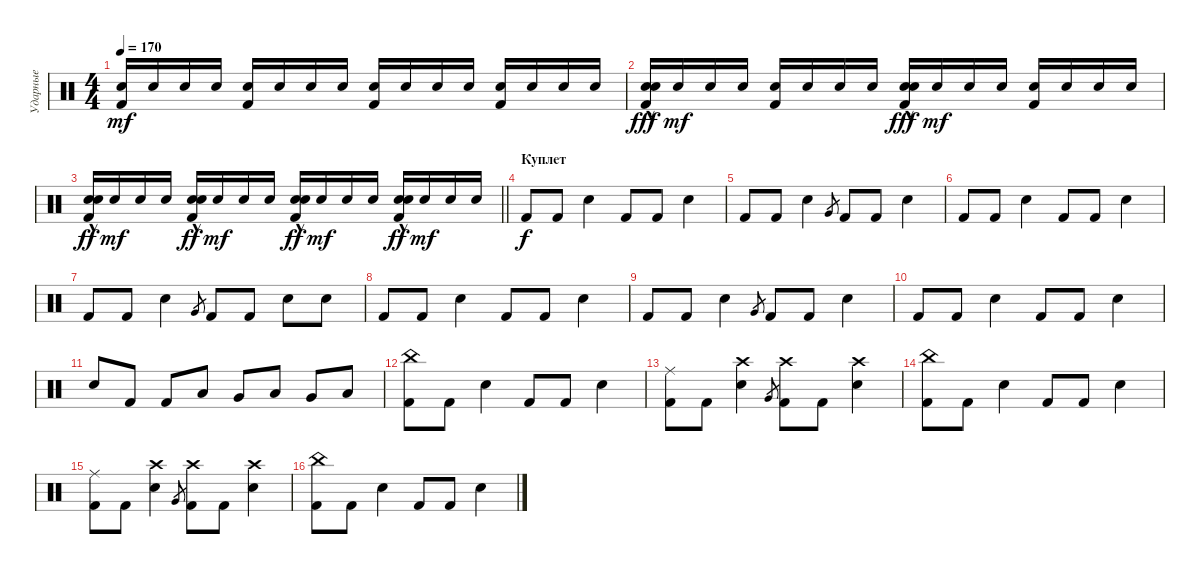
\track ("Ударные" "Ударные") {instrument percussion}
\staff {score}
\articulation defaults
\ts (4 4)
\tempo 170
\clef neutral
\ks c
("Kick (hit) 2" "Electric Snare (hit)").16{dy mf} "Electric Snare (hit)".16 "Electric Snare (hit)".16 "Electric Snare (hit)".16 ("Kick (hit) 2" "Electric Snare (hit)").16 "Electric Snare (hit)".16 "Electric Snare (hit)".16 "Electric Snare (hit)".16 ("Kick (hit) 2" "Electric Snare (hit)").16 "Electric Snare (hit)".16 "Electric Snare (hit)".16 "Electric Snare (hit)".16 ("Kick (hit) 2" "Electric Snare (hit)").16 "Electric Snare (hit)".16 "Electric Snare (hit)".16 "Electric Snare (hit)".16 |
("Kick (hit) 2" "Electric Snare (hit)"{hac} "Snare (hit) 2"{hac}).16{dy fff} "Electric Snare (hit)".16{dy mf} "Electric Snare (hit)".16 "Electric Snare (hit)".16 ("Kick (hit) 2" "Electric Snare (hit)").16 "Electric Snare (hit)".16 "Electric Snare (hit)".16 "Electric Snare (hit)".16 ("Kick (hit) 2" "Electric Snare (hit)"{hac} "Snare (hit) 2"{hac}).16{dy fff} "Electric Snare (hit)".16{dy mf} "Electric Snare (hit)".16 "Electric Snare (hit)".16 ("Kick (hit) 2" "Electric Snare (hit)").16 "Electric Snare (hit)".16 "Electric Snare (hit)".16 "Electric Snare (hit)".16 |
\barLineRight lightlight
("Kick (hit) 2" "Electric Snare (hit)"{hac} "Snare (hit) 2").16{dy ff} "Electric Snare (hit)".16{dy mf} "Electric Snare (hit)".16 "Electric Snare (hit)".16 ("Kick (hit) 2" "Electric Snare (hit)"{hac} "Snare (hit) 2").16{dy ff} "Electric Snare (hit)".16{dy mf} "Electric Snare (hit)".16 "Electric Snare (hit)".16 ("Kick (hit) 2" "Electric Snare (hit)"{hac} "Snare (hit) 2").16{dy ff} "Electric Snare (hit)".16{dy mf} "Electric Snare (hit)".16 "Electric Snare (hit)".16 ("Kick (hit) 2" "Electric Snare (hit)"{hac} "Snare (hit) 2").16{dy ff} "Electric Snare (hit)".16{dy mf} "Electric Snare (hit)".16 "Electric Snare (hit)".16 |
\section ("" "Куплет")
"Kick (hit) 2".8{dy f} "Kick (hit) 2".8 "Electric Snare (hit)".4 "Kick (hit) 2".8 "Kick (hit) 2".8 "Electric Snare (hit)".4 |
"Kick (hit) 2".8 "Kick (hit) 2".8 "Electric Snare (hit)".4 "Very Low Tom (hit)".8{gr} "Kick (hit) 2".8 "Kick (hit) 2".8 "Electric Snare (hit)".4 |
"Kick (hit) 2".8 "Kick (hit) 2".8 "Electric Snare (hit)".4 "Kick (hit) 2".8 "Kick (hit) 2".8 "Electric Snare (hit)".4 |
"Kick (hit) 2".8 "Kick (hit) 2".8 "Electric Snare (hit)".4 "Very Low Tom (hit)".8{gr} "Kick (hit) 2".8 "Kick (hit) 2".8 "Electric Snare (hit)".8 "Electric Snare (hit)".8 |
"Kick (hit) 2".8 "Kick (hit) 2".8 "Electric Snare (hit)".4 "Kick (hit) 2".8 "Kick (hit) 2".8 "Electric Snare (hit)".4 |
"Kick (hit) 2".8 "Kick (hit) 2".8 "Electric Snare (hit)".4 "Very Low Tom (hit)".8{gr} "Kick (hit) 2".8 "Kick (hit) 2".8 "Electric Snare (hit)".4 |
"Kick (hit) 2".8 "Kick (hit) 2".8 "Electric Snare (hit)".4 "Kick (hit) 2".8 "Kick (hit) 2".8 "Electric Snare (hit)".4 |
"Electric Snare (hit)".8 "Kick (hit) 2".8 "Kick (hit) 2".8 "Low Tom (hit)".8 "Very Low Tom (hit)".8 "Low Floor Tom (hit)".8 "Very Low Tom (hit)".8 "Low Floor Tom (hit)".8 |
("Kick (hit) 2" "China (hit)").8 "Kick (hit) 2".8 "Electric Snare (hit)".4 "Kick (hit) 2".8 "Kick (hit) 2".8 "Electric Snare (hit)".4 |
("Kick (hit) 2" "Ride (middle)").8 "Kick (hit) 2".8 ("Electric Snare (hit)" "Crash high (hit)").4 "Very Low Tom (hit)".8{gr} ("Kick (hit) 2" "Crash high (hit)").8 "Kick (hit) 2".8 ("Electric Snare (hit)" "Crash high (hit)").4 |
("Kick (hit) 2" "China (hit)").8 "Kick (hit) 2".8 "Electric Snare (hit)".4 "Kick (hit) 2".8 "Kick (hit) 2".8 "Electric Snare (hit)".4 |
("Kick (hit) 2" "Ride (middle)").8 "Kick (hit) 2".8 ("Electric Snare (hit)" "Crash high (hit)").4 "Very Low Tom (hit)".8{gr} ("Kick (hit) 2" "Crash high (hit)").8 "Kick (hit) 2".8 ("Electric Snare (hit)" "Crash high (hit)").4 |
("Kick (hit) 2" "China (hit)").8 "Kick (hit) 2".8 "Electric Snare (hit)".4 "Kick (hit) 2".8 "Kick (hit) 2".8 "Electric Snare (hit)".4
